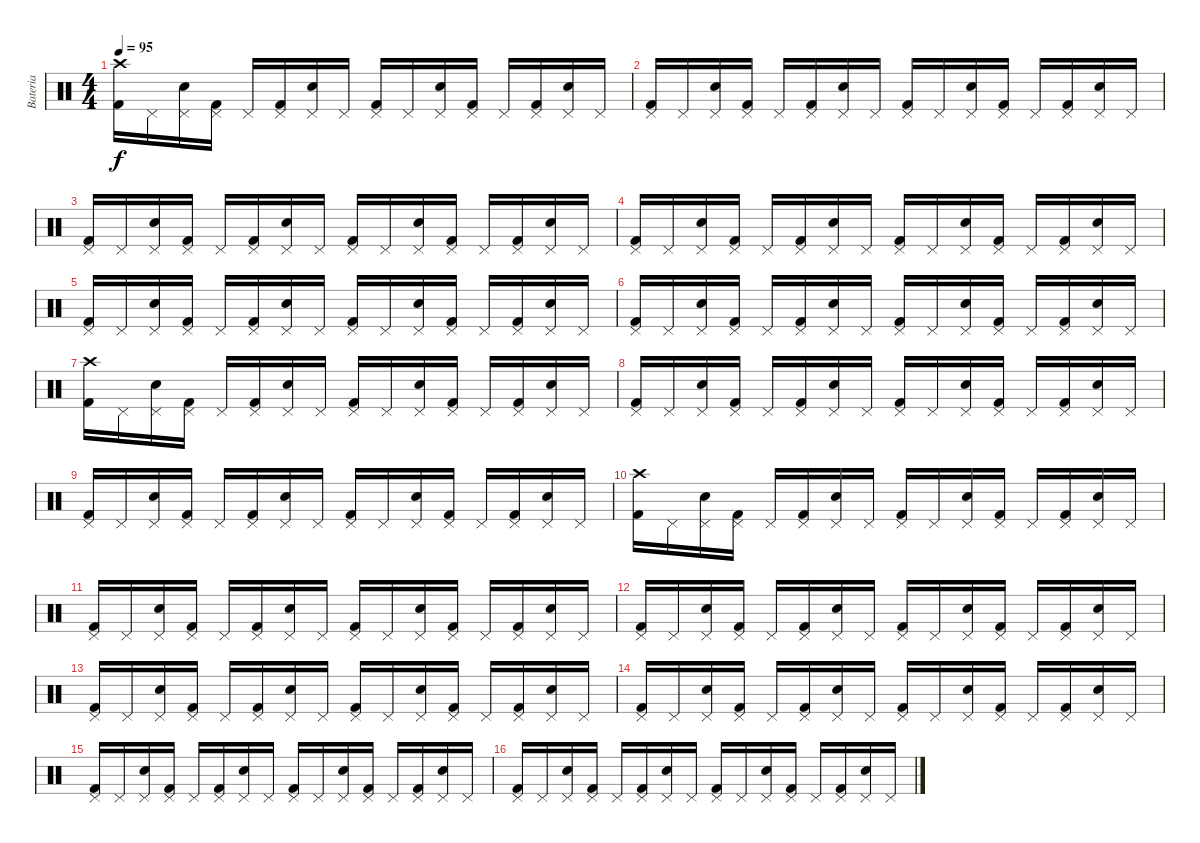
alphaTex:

\track ("Bateria" "Bateria") {instrument percussion}
\staff {score}
\articulation defaults
\ts (4 4)
\tempo 95
\clef neutral
\ks c
("Crash high (hit)" "Kick (hit) 2").16{dy f} "Pedal Hi-Hat (hit)".16 ("Pedal Hi-Hat (hit)" "Electric Snare (hit)").16 ("Pedal Hi-Hat (hit)" "Kick (hit) 2").16 "Pedal Hi-Hat (hit)".16 ("Pedal Hi-Hat (hit)" "Kick (hit) 2").16 ("Pedal Hi-Hat (hit)" "Electric Snare (hit)").16 "Pedal Hi-Hat (hit)".16 ("Pedal Hi-Hat (hit)" "Kick (hit) 2").16 "Pedal Hi-Hat (hit)".16 ("Pedal Hi-Hat (hit)" "Electric Snare (hit)").16 ("Pedal Hi-Hat (hit)" "Kick (hit) 2").16 "Pedal Hi-Hat (hit)".16 ("Pedal Hi-Hat (hit)" "Kick (hit) 2").16 ("Pedal Hi-Hat (hit)" "Electric Snare (hit)").16 "Pedal Hi-Hat (hit)".16 |
("Pedal Hi-Hat (hit)" "Kick (hit) 2").16 "Pedal Hi-Hat (hit)".16 ("Pedal Hi-Hat (hit)" "Electric Snare (hit)").16 ("Pedal Hi-Hat (hit)" "Kick (hit) 2").16 "Pedal Hi-Hat (hit)".16 ("Pedal Hi-Hat (hit)" "Kick (hit) 2").16 ("Pedal Hi-Hat (hit)" "Electric Snare (hit)").16 "Pedal Hi-Hat (hit)".16 ("Pedal Hi-Hat (hit)" "Kick (hit) 2").16 "Pedal Hi-Hat (hit)".16 ("Pedal Hi-Hat (hit)" "Electric Snare (hit)").16 ("Pedal Hi-Hat (hit)" "Kick (hit) 2").16 "Pedal Hi-Hat (hit)".16 ("Pedal Hi-Hat (hit)" "Kick (hit) 2").16 ("Pedal Hi-Hat (hit)" "Electric Snare (hit)").16 "Pedal Hi-Hat (hit)".16 |
("Pedal Hi-Hat (hit)" "Kick (hit) 2").16 "Pedal Hi-Hat (hit)".16 ("Pedal Hi-Hat (hit)" "Electric Snare (hit)").16 ("Pedal Hi-Hat (hit)" "Kick (hit) 2").16 "Pedal Hi-Hat (hit)".16 ("Pedal Hi-Hat (hit)" "Kick (hit) 2").16 ("Pedal Hi-Hat (hit)" "Electric Snare (hit)").16 "Pedal Hi-Hat (hit)".16 ("Pedal Hi-Hat (hit)" "Kick (hit) 2").16 "Pedal Hi-Hat (hit)".16 ("Pedal Hi-Hat (hit)" "Electric Snare (hit)").16 ("Pedal Hi-Hat (hit)" "Kick (hit) 2").16 "Pedal Hi-Hat (hit)".16 ("Pedal Hi-Hat (hit)" "Kick (hit) 2").16 ("Pedal Hi-Hat (hit)" "Electric Snare (hit)").16 "Pedal Hi-Hat (hit)".16 |
("Pedal Hi-Hat (hit)" "Kick (hit) 2").16 "Pedal Hi-Hat (hit)".16 ("Pedal Hi-Hat (hit)" "Electric Snare (hit)").16 ("Pedal Hi-Hat (hit)" "Kick (hit) 2").16 "Pedal Hi-Hat (hit)".16 ("Pedal Hi-Hat (hit)" "Kick (hit) 2").16 ("Pedal Hi-Hat (hit)" "Electric Snare (hit)").16 "Pedal Hi-Hat (hit)".16 ("Pedal Hi-Hat (hit)" "Kick (hit) 2").16 "Pedal Hi-Hat (hit)".16 ("Pedal Hi-Hat (hit)" "Electric Snare (hit)").16 ("Pedal Hi-Hat (hit)" "Kick (hit) 2").16 "Pedal Hi-Hat (hit)".16 ("Pedal Hi-Hat (hit)" "Kick (hit) 2").16 ("Pedal Hi-Hat (hit)" "Electric Snare (hit)").16 "Pedal Hi-Hat (hit)".16 |
("Pedal Hi-Hat (hit)" "Kick (hit) 2").16 "Pedal Hi-Hat (hit)".16 ("Pedal Hi-Hat (hit)" "Electric Snare (hit)").16 ("Pedal Hi-Hat (hit)" "Kick (hit) 2").16 "Pedal Hi-Hat (hit)".16 ("Pedal Hi-Hat (hit)" "Kick (hit) 2").16 ("Pedal Hi-Hat (hit)" "Electric Snare (hit)").16 "Pedal Hi-Hat (hit)".16 ("Pedal Hi-Hat (hit)" "Kick (hit) 2").16 "Pedal Hi-Hat (hit)".16 ("Pedal Hi-Hat (hit)" "Electric Snare (hit)").16 ("Pedal Hi-Hat (hit)" "Kick (hit) 2").16 "Pedal Hi-Hat (hit)".16 ("Pedal Hi-Hat (hit)" "Kick (hit) 2").16 ("Pedal Hi-Hat (hit)" "Electric Snare (hit)").16 "Pedal Hi-Hat (hit)".16 |
("Pedal Hi-Hat (hit)" "Kick (hit) 2").16 "Pedal Hi-Hat (hit)".16 ("Pedal Hi-Hat (hit)" "Electric Snare (hit)").16 ("Pedal Hi-Hat (hit)" "Kick (hit) 2").16 "Pedal Hi-Hat (hit)".16 ("Pedal Hi-Hat (hit)" "Kick (hit) 2").16 ("Pedal Hi-Hat (hit)" "Electric Snare (hit)").16 "Pedal Hi-Hat (hit)".16 ("Pedal Hi-Hat (hit)" "Kick (hit) 2").16 "Pedal Hi-Hat (hit)".16 ("Pedal Hi-Hat (hit)" "Electric Snare (hit)").16 ("Pedal Hi-Hat (hit)" "Kick (hit) 2").16 "Pedal Hi-Hat (hit)".16 ("Pedal Hi-Hat (hit)" "Kick (hit) 2").16 ("Pedal Hi-Hat (hit)" "Electric Snare (hit)").16 "Pedal Hi-Hat (hit)".16 |
("Crash high (hit)" "Kick (hit) 2").16 "Pedal Hi-Hat (hit)".16 ("Pedal Hi-Hat (hit)" "Electric Snare (hit)").16 ("Pedal Hi-Hat (hit)" "Kick (hit) 2").16 "Pedal Hi-Hat (hit)".16 ("Pedal Hi-Hat (hit)" "Kick (hit) 2").16 ("Pedal Hi-Hat (hit)" "Electric Snare (hit)").16 "Pedal Hi-Hat (hit)".16 ("Pedal Hi-Hat (hit)" "Kick (hit) 2").16 "Pedal Hi-Hat (hit)".16 ("Pedal Hi-Hat (hit)" "Electric Snare (hit)").16 ("Pedal Hi-Hat (hit)" "Kick (hit) 2").16 "Pedal Hi-Hat (hit)".16 ("Pedal Hi-Hat (hit)" "Kick (hit) 2").16 ("Pedal Hi-Hat (hit)" "Electric Snare (hit)").16 "Pedal Hi-Hat (hit)".16 |
("Pedal Hi-Hat (hit)" "Kick (hit) 2").16 "Pedal Hi-Hat (hit)".16 ("Pedal Hi-Hat (hit)" "Electric Snare (hit)").16 ("Pedal Hi-Hat (hit)" "Kick (hit) 2").16 "Pedal Hi-Hat (hit)".16 ("Pedal Hi-Hat (hit)" "Kick (hit) 2").16 ("Pedal Hi-Hat (hit)" "Electric Snare (hit)").16 "Pedal Hi-Hat (hit)".16 ("Pedal Hi-Hat (hit)" "Kick (hit) 2").16 "Pedal Hi-Hat (hit)".16 ("Pedal Hi-Hat (hit)" "Electric Snare (hit)").16 ("Pedal Hi-Hat (hit)" "Kick (hit) 2").16 "Pedal Hi-Hat (hit)".16 ("Pedal Hi-Hat (hit)" "Kick (hit) 2").16 ("Pedal Hi-Hat (hit)" "Electric Snare (hit)").16 "Pedal Hi-Hat (hit)".16 |
("Pedal Hi-Hat (hit)" "Kick (hit) 2").16 "Pedal Hi-Hat (hit)".16 ("Pedal Hi-Hat (hit)" "Electric Snare (hit)").16 ("Pedal Hi-Hat (hit)" "Kick (hit) 2").16 "Pedal Hi-Hat (hit)".16 ("Pedal Hi-Hat (hit)" "Kick (hit) 2").16 ("Pedal Hi-Hat (hit)" "Electric Snare (hit)").16 "Pedal Hi-Hat (hit)".16 ("Pedal Hi-Hat (hit)" "Kick (hit) 2").16 "Pedal Hi-Hat (hit)".16 ("Pedal Hi-Hat (hit)" "Electric Snare (hit)").16 ("Pedal Hi-Hat (hit)" "Kick (hit) 2").16 "Pedal Hi-Hat (hit)".16 ("Pedal Hi-Hat (hit)" "Kick (hit) 2").16 ("Pedal Hi-Hat (hit)" "Electric Snare (hit)").16 "Pedal Hi-Hat (hit)".16 |
("Crash high (hit)" "Kick (hit) 2").16 "Pedal Hi-Hat (hit)".16 ("Pedal Hi-Hat (hit)" "Electric Snare (hit)").16 ("Pedal Hi-Hat (hit)" "Kick (hit) 2").16 "Pedal Hi-Hat (hit)".16 ("Pedal Hi-Hat (hit)" "Kick (hit) 2").16 ("Pedal Hi-Hat (hit)" "Electric Snare (hit)").16 "Pedal Hi-Hat (hit)".16 ("Pedal Hi-Hat (hit)" "Kick (hit) 2").16 "Pedal Hi-Hat (hit)".16 ("Pedal Hi-Hat (hit)" "Electric Snare (hit)").16 ("Pedal Hi-Hat (hit)" "Kick (hit) 2").16 "Pedal Hi-Hat (hit)".16 ("Pedal Hi-Hat (hit)" "Kick (hit) 2").16 ("Pedal Hi-Hat (hit)" "Electric Snare (hit)").16 "Pedal Hi-Hat (hit)".16 |
("Pedal Hi-Hat (hit)" "Kick (hit) 2").16 "Pedal Hi-Hat (hit)".16 ("Pedal Hi-Hat (hit)" "Electric Snare (hit)").16 ("Pedal Hi-Hat (hit)" "Kick (hit) 2").16 "Pedal Hi-Hat (hit)".16 ("Pedal Hi-Hat (hit)" "Kick (hit) 2").16 ("Pedal Hi-Hat (hit)" "Electric Snare (hit)").16 "Pedal Hi-Hat (hit)".16 ("Pedal Hi-Hat (hit)" "Kick (hit) 2").16 "Pedal Hi-Hat (hit)".16 ("Pedal Hi-Hat (hit)" "Electric Snare (hit)").16 ("Pedal Hi-Hat (hit)" "Kick (hit) 2").16 "Pedal Hi-Hat (hit)".16 ("Pedal Hi-Hat (hit)" "Kick (hit) 2").16 ("Pedal Hi-Hat (hit)" "Electric Snare (hit)").16 "Pedal Hi-Hat (hit)".16 |
("Pedal Hi-Hat (hit)" "Kick (hit) 2").16 "Pedal Hi-Hat (hit)".16 ("Pedal Hi-Hat (hit)" "Electric Snare (hit)").16 ("Pedal Hi-Hat (hit)" "Kick (hit) 2").16 "Pedal Hi-Hat (hit)".16 ("Pedal Hi-Hat (hit)" "Kick (hit) 2").16 ("Pedal Hi-Hat (hit)" "Electric Snare (hit)").16 "Pedal Hi-Hat (hit)".16 ("Pedal Hi-Hat (hit)" "Kick (hit) 2").16 "Pedal Hi-Hat (hit)".16 ("Pedal Hi-Hat (hit)" "Electric Snare (hit)").16 ("Pedal Hi-Hat (hit)" "Kick (hit) 2").16 "Pedal Hi-Hat (hit)".16 ("Pedal Hi-Hat (hit)" "Kick (hit) 2").16 ("Pedal Hi-Hat (hit)" "Electric Snare (hit)").16 "Pedal Hi-Hat (hit)".16 |
("Pedal Hi-Hat (hit)" "Kick (hit) 2").16 "Pedal Hi-Hat (hit)".16 ("Pedal Hi-Hat (hit)" "Electric Snare (hit)").16 ("Pedal Hi-Hat (hit)" "Kick (hit) 2").16 "Pedal Hi-Hat (hit)".16 ("Pedal Hi-Hat (hit)" "Kick (hit) 2").16 ("Pedal Hi-Hat (hit)" "Electric Snare (hit)").16 "Pedal Hi-Hat (hit)".16 ("Pedal Hi-Hat (hit)" "Kick (hit) 2").16 "Pedal Hi-Hat (hit)".16 ("Pedal Hi-Hat (hit)" "Electric Snare (hit)").16 ("Pedal Hi-Hat (hit)" "Kick (hit) 2").16 "Pedal Hi-Hat (hit)".16 ("Pedal Hi-Hat (hit)" "Kick (hit) 2").16 ("Pedal Hi-Hat (hit)" "Electric Snare (hit)").16 "Pedal Hi-Hat (hit)".16 |
("Pedal Hi-Hat (hit)" "Kick (hit) 2").16 "Pedal Hi-Hat (hit)".16 ("Pedal Hi-Hat (hit)" "Electric Snare (hit)").16 ("Pedal Hi-Hat (hit)" "Kick (hit) 2").16 "Pedal Hi-Hat (hit)".16 ("Pedal Hi-Hat (hit)" "Kick (hit) 2").16 ("Pedal Hi-Hat (hit)" "Electric Snare (hit)").16 "Pedal Hi-Hat (hit)".16 ("Pedal Hi-Hat (hit)" "Kick (hit) 2").16 "Pedal Hi-Hat (hit)".16 ("Pedal Hi-Hat (hit)" "Electric Snare (hit)").16 ("Pedal Hi-Hat (hit)" "Kick (hit) 2").16 "Pedal Hi-Hat (hit)".16 ("Pedal Hi-Hat (hit)" "Kick (hit) 2").16 ("Pedal Hi-Hat (hit)" "Electric Snare (hit)").16 "Pedal Hi-Hat (hit)".16 |
("Pedal Hi-Hat (hit)" "Kick (hit) 2").16 "Pedal Hi-Hat (hit)".16 ("Pedal Hi-Hat (hit)" "Electric Snare (hit)").16 ("Pedal Hi-Hat (hit)" "Kick (hit) 2").16 "Pedal Hi-Hat (hit)".16 ("Pedal Hi-Hat (hit)" "Kick (hit) 2").16 ("Pedal Hi-Hat (hit)" "Electric Snare (hit)").16 "Pedal Hi-Hat (hit)".16 ("Pedal Hi-Hat (hit)" "Kick (hit) 2").16 "Pedal Hi-Hat (hit)".16 ("Pedal Hi-Hat (hit)" "Electric Snare (hit)").16 ("Pedal Hi-Hat (hit)" "Kick (hit) 2").16 "Pedal Hi-Hat (hit)".16 ("Pedal Hi-Hat (hit)" "Kick (hit) 2").16 ("Pedal Hi-Hat (hit)" "Electric Snare (hit)").16 "Pedal Hi-Hat (hit)".16 |
("Pedal Hi-Hat (hit)" "Kick (hit) 2").16 "Pedal Hi-Hat (hit)".16 ("Pedal Hi-Hat (hit)" "Electric Snare (hit)").16 ("Pedal Hi-Hat (hit)" "Kick (hit) 2").16 "Pedal Hi-Hat (hit)".16 ("Pedal Hi-Hat (hit)" "Kick (hit) 2").16 ("Pedal Hi-Hat (hit)" "Electric Snare (hit)").16 "Pedal Hi-Hat (hit)".16 ("Pedal Hi-Hat (hit)" "Kick (hit) 2").16 "Pedal Hi-Hat (hit)".16 ("Pedal Hi-Hat (hit)" "Electric Snare (hit)").16 ("Pedal Hi-Hat (hit)" "Kick (hit) 2").16 "Pedal Hi-Hat (hit)".16 ("Pedal Hi-Hat (hit)" "Kick (hit) 2").16 ("Pedal Hi-Hat (hit)" "Electric Snare (hit)").16 "Pedal Hi-Hat (hit)".16
